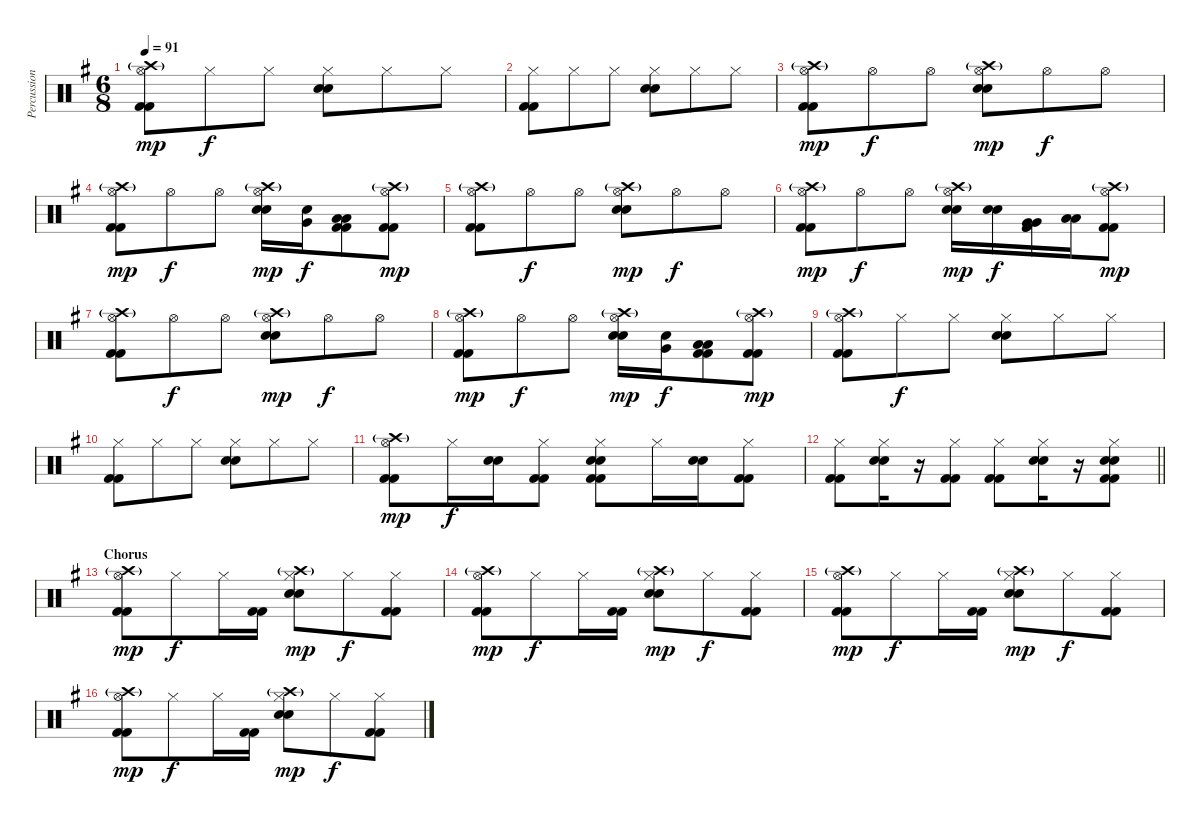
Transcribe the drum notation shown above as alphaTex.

\track ("Percussion" "Percussion") {instrument percussion}
\staff {score}
\articulation defaults
\ts (6 8)
\tempo 91
\clef neutral
\ks eminor
("Hi-Hat (open)" "Crash high (hit)"{g} "Kick (hit) 2" "Kick (hit) 2").8{dy mp} "Hi-Hat (closed)".8{dy f} "Hi-Hat (closed)".8 ("Hi-Hat (closed)" "Snare (hit) 2" "Snare (hit) 2").8 "Hi-Hat (closed)".8 "Hi-Hat (closed)".8 |
("Hi-Hat (closed)" "Kick (hit) 2" "Kick (hit) 2").8 "Hi-Hat (closed)".8 "Hi-Hat (closed)".8 ("Hi-Hat (closed)" "Snare (hit) 2" "Snare (hit) 2").8 "Hi-Hat (closed)".8 "Hi-Hat (closed)".8 |
("Hi-Hat (open)" "Crash high (hit)"{g} "Kick (hit) 2" "Kick (hit) 2").8{dy mp} "Hi-Hat (open)".8{dy f} "Hi-Hat (open)".8 ("Hi-Hat (open)" "Crash high (hit)"{g} "Snare (hit) 2" "Snare (hit) 2").8{dy mp} "Hi-Hat (open)".8{dy f} "Hi-Hat (open)".8 |
("Hi-Hat (open)" "Crash high (hit)"{g} "Kick (hit) 2" "Kick (hit) 2").8{dy mp} "Hi-Hat (open)".8{dy f} "Hi-Hat (open)".8 ("Hi-Hat (open)" "Crash high (hit)"{g} "Snare (hit) 2" "Snare (hit) 2").16{dy mp} ("Snare (hit) 2" "Very Low Tom (hit)").16{dy f} ("Low Floor Tom (hit)" "Low Floor Tom (hit)" "Kick (hit) 2" "Kick (hit) 2").8 ("Hi-Hat (open)" "Crash high (hit)"{g} "Kick (hit) 2" "Kick (hit) 2").8{dy mp} |
("Hi-Hat (open)" "Crash high (hit)"{g} "Kick (hit) 2" "Kick (hit) 2").8 "Hi-Hat (open)".8{dy f} "Hi-Hat (open)".8 ("Hi-Hat (open)" "Crash high (hit)"{g} "Snare (hit) 2" "Snare (hit) 2").8{dy mp} "Hi-Hat (open)".8{dy f} "Hi-Hat (open)".8 |
("Hi-Hat (open)" "Crash high (hit)"{g} "Kick (hit) 2" "Kick (hit) 2").8{dy mp} "Hi-Hat (open)".8{dy f} "Hi-Hat (open)".8 ("Hi-Hat (open)" "Crash high (hit)"{g} "Snare (hit) 2" "Snare (hit) 2").16{dy mp} ("Snare (hit) 2" "Snare (hit) 2").16{dy f} ("Very Low Tom (hit)" "Very Low Tom (hit)" "Kick (hit) 2" "Kick (hit) 2").16 ("Low Floor Tom (hit)" "Low Floor Tom (hit)").16 ("Hi-Hat (open)" "Crash high (hit)"{g} "Kick (hit) 2" "Kick (hit) 2").8{dy mp} |
("Hi-Hat (open)" "Crash high (hit)"{g} "Kick (hit) 2" "Kick (hit) 2").8 "Hi-Hat (open)".8{dy f} "Hi-Hat (open)".8 ("Hi-Hat (open)" "Crash high (hit)"{g} "Snare (hit) 2" "Snare (hit) 2").8{dy mp} "Hi-Hat (open)".8{dy f} "Hi-Hat (open)".8 |
("Hi-Hat (open)" "Crash high (hit)"{g} "Kick (hit) 2" "Kick (hit) 2").8{dy mp} "Hi-Hat (open)".8{dy f} "Hi-Hat (open)".8 ("Hi-Hat (open)" "Crash high (hit)"{g} "Snare (hit) 2" "Snare (hit) 2").16{dy mp} ("Snare (hit) 2" "Very Low Tom (hit)").16{dy f} ("Low Floor Tom (hit)" "Low Floor Tom (hit)" "Kick (hit) 2" "Kick (hit) 2").8 ("Hi-Hat (open)" "Crash high (hit)"{g} "Kick (hit) 2" "Kick (hit) 2").8{dy mp} |
("Hi-Hat (open)" "Crash high (hit)"{g} "Kick (hit) 2" "Kick (hit) 2").8 "Hi-Hat (closed)".8{dy f} "Hi-Hat (closed)".8 ("Hi-Hat (closed)" "Snare (hit) 2" "Snare (hit) 2").8 "Hi-Hat (closed)".8 "Hi-Hat (closed)".8 |
("Hi-Hat (closed)" "Kick (hit) 2" "Kick (hit) 2").8 "Hi-Hat (closed)".8 "Hi-Hat (closed)".8 ("Hi-Hat (closed)" "Snare (hit) 2" "Snare (hit) 2").8 "Hi-Hat (closed)".8 "Hi-Hat (closed)".8 |
("Hi-Hat (open)" "Crash high (hit)"{g} "Kick (hit) 2" "Kick (hit) 2").8{dy mp} "Hi-Hat (closed)".16{dy f} ("Snare (hit) 2" "Snare (hit) 2").16 ("Hi-Hat (closed)" "Kick (hit) 2" "Kick (hit) 2").8 ("Hi-Hat (closed)" "Snare (hit) 2" "Snare (hit) 2" "Kick (hit) 2" "Kick (hit) 2").8 "Hi-Hat (closed)".16 ("Snare (hit) 2" "Snare (hit) 2").16 ("Hi-Hat (closed)" "Kick (hit) 2" "Kick (hit) 2").8 |
\barLineRight lightlight
("Hi-Hat (closed)" "Kick (hit) 2" "Kick (hit) 2").8 ("Hi-Hat (closed)" "Snare (hit) 2" "Snare (hit) 2").16 r.16 ("Hi-Hat (closed)" "Kick (hit) 2" "Kick (hit) 2").8 ("Hi-Hat (closed)" "Kick (hit) 2" "Kick (hit) 2").8 ("Hi-Hat (closed)" "Snare (hit) 2" "Snare (hit) 2").16 r.16 ("Hi-Hat (closed)" "Snare (hit) 2" "Snare (hit) 2" "Kick (hit) 2" "Kick (hit) 2").8 |
\section ("" "Chorus")
("Hi-Hat (open)" "Crash high (hit)"{g} "Kick (hit) 2" "Kick (hit) 2").8{dy mp} "Hi-Hat (closed)".8{dy f} "Hi-Hat (closed)".16 ("Kick (hit) 2" "Kick (hit) 2").16 ("Hi-Hat (closed)" "Crash high (hit)"{g} "Snare (hit) 2" "Snare (hit) 2").8{dy mp} "Hi-Hat (closed)".8{dy f} ("Hi-Hat (closed)" "Kick (hit) 2" "Kick (hit) 2").8 |
("Hi-Hat (open)" "Crash high (hit)"{g} "Kick (hit) 2" "Kick (hit) 2").8{dy mp} "Hi-Hat (closed)".8{dy f} "Hi-Hat (closed)".16 ("Kick (hit) 2" "Kick (hit) 2").16 ("Hi-Hat (closed)" "Crash high (hit)"{g} "Snare (hit) 2" "Snare (hit) 2").8{dy mp} "Hi-Hat (closed)".8{dy f} ("Hi-Hat (closed)" "Kick (hit) 2" "Kick (hit) 2").8 |
("Hi-Hat (open)" "Crash high (hit)"{g} "Kick (hit) 2" "Kick (hit) 2").8{dy mp} "Hi-Hat (closed)".8{dy f} "Hi-Hat (closed)".16 ("Kick (hit) 2" "Kick (hit) 2").16 ("Hi-Hat (closed)" "Crash high (hit)"{g} "Snare (hit) 2" "Snare (hit) 2").8{dy mp} "Hi-Hat (closed)".8{dy f} ("Hi-Hat (closed)" "Kick (hit) 2" "Kick (hit) 2").8 |
("Hi-Hat (open)" "Crash high (hit)"{g} "Kick (hit) 2" "Kick (hit) 2").8{dy mp} "Hi-Hat (closed)".8{dy f} "Hi-Hat (closed)".16 ("Kick (hit) 2" "Kick (hit) 2").16 ("Hi-Hat (closed)" "Crash high (hit)"{g} "Snare (hit) 2" "Snare (hit) 2").8{dy mp} "Hi-Hat (closed)".8{dy f} ("Hi-Hat (closed)" "Kick (hit) 2" "Kick (hit) 2").8
